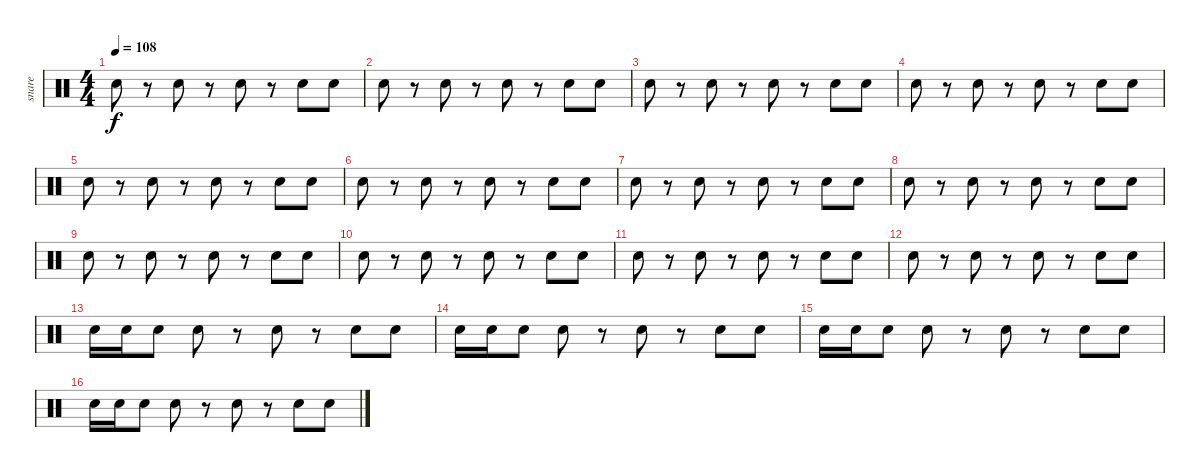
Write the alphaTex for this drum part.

\track ("snare               " "snare     ") {instrument percussion}
\staff {score}
\articulation defaults
\ts (4 4)
\tempo 108
\clef neutral
\ks c "Snare (hit) 2".8{dy f}
r.8 "Snare (hit) 2".8 r.8 "Snare (hit) 2".8 r.8 "Snare (hit) 2".8 "Snare (hit) 2".8 |
"Snare (hit) 2".8 r.8 "Snare (hit) 2".8 r.8 "Snare (hit) 2".8 r.8 "Snare (hit) 2".8 "Snare (hit) 2".8 |
"Snare (hit) 2".8 r.8 "Snare (hit) 2".8 r.8 "Snare (hit) 2".8 r.8 "Snare (hit) 2".8 "Snare (hit) 2".8 |
"Snare (hit) 2".8 r.8 "Snare (hit) 2".8 r.8 "Snare (hit) 2".8 r.8 "Snare (hit) 2".8 "Snare (hit) 2".8 |
"Snare (hit) 2".8 r.8 "Snare (hit) 2".8 r.8 "Snare (hit) 2".8 r.8 "Snare (hit) 2".8 "Snare (hit) 2".8 |
"Snare (hit) 2".8 r.8 "Snare (hit) 2".8 r.8 "Snare (hit) 2".8 r.8 "Snare (hit) 2".8 "Snare (hit) 2".8 |
"Snare (hit) 2".8 r.8 "Snare (hit) 2".8 r.8 "Snare (hit) 2".8 r.8 "Snare (hit) 2".8 "Snare (hit) 2".8 |
"Snare (hit) 2".8 r.8 "Snare (hit) 2".8 r.8 "Snare (hit) 2".8 r.8 "Snare (hit) 2".8 "Snare (hit) 2".8 |
"Snare (hit) 2".8 r.8 "Snare (hit) 2".8 r.8 "Snare (hit) 2".8 r.8 "Snare (hit) 2".8 "Snare (hit) 2".8 |
"Snare (hit) 2".8 r.8 "Snare (hit) 2".8 r.8 "Snare (hit) 2".8 r.8 "Snare (hit) 2".8 "Snare (hit) 2".8 |
"Snare (hit) 2".8 r.8 "Snare (hit) 2".8 r.8 "Snare (hit) 2".8 r.8 "Snare (hit) 2".8 "Snare (hit) 2".8 |
"Snare (hit) 2".8 r.8 "Snare (hit) 2".8 r.8 "Snare (hit) 2".8 r.8 "Snare (hit) 2".8 "Snare (hit) 2".8 |
"Snare (hit) 2".16 "Snare (hit) 2".16 "Snare (hit) 2".8 "Snare (hit) 2".8 r.8 "Snare (hit) 2".8 r.8 "Snare (hit) 2".8 "Snare (hit) 2".8 |
"Snare (hit) 2".16 "Snare (hit) 2".16 "Snare (hit) 2".8 "Snare (hit) 2".8 r.8 "Snare (hit) 2".8 r.8 "Snare (hit) 2".8 "Snare (hit) 2".8 |
"Snare (hit) 2".16 "Snare (hit) 2".16 "Snare (hit) 2".8 "Snare (hit) 2".8 r.8 "Snare (hit) 2".8 r.8 "Snare (hit) 2".8 "Snare (hit) 2".8 |
"Snare (hit) 2".16 "Snare (hit) 2".16 "Snare (hit) 2".8 "Snare (hit) 2".8 r.8 "Snare (hit) 2".8 r.8 "Snare (hit) 2".8 "Snare (hit) 2".8
